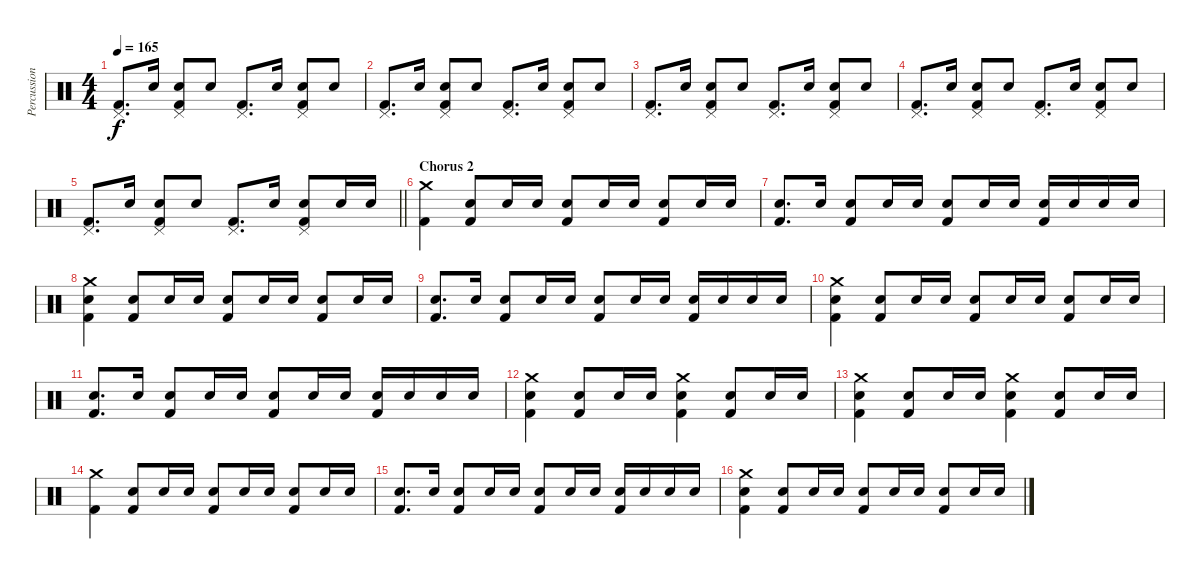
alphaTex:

\track ("Percussion" "Percussion") {instrument percussion}
\staff {score}
\articulation defaults
\ts (4 4)
\tempo 165
\clef neutral
\ks c
("Pedal Hi-Hat (hit)" "Kick (hit) 2").8{d dy f} "Electric Snare (hit)".16 ("Pedal Hi-Hat (hit)" "Electric Snare (hit)" "Kick (hit) 2").8 "Electric Snare (hit)".8 ("Pedal Hi-Hat (hit)" "Kick (hit) 2").8{d} "Electric Snare (hit)".16 ("Pedal Hi-Hat (hit)" "Electric Snare (hit)" "Kick (hit) 2").8 "Electric Snare (hit)".8 |
("Pedal Hi-Hat (hit)" "Kick (hit) 2").8{d} "Electric Snare (hit)".16 ("Pedal Hi-Hat (hit)" "Electric Snare (hit)" "Kick (hit) 2").8 "Electric Snare (hit)".8 ("Pedal Hi-Hat (hit)" "Kick (hit) 2").8{d} "Electric Snare (hit)".16 ("Pedal Hi-Hat (hit)" "Electric Snare (hit)" "Kick (hit) 2").8 "Electric Snare (hit)".8 |
("Pedal Hi-Hat (hit)" "Kick (hit) 2").8{d} "Electric Snare (hit)".16 ("Pedal Hi-Hat (hit)" "Electric Snare (hit)" "Kick (hit) 2").8 "Electric Snare (hit)".8 ("Pedal Hi-Hat (hit)" "Kick (hit) 2").8{d} "Electric Snare (hit)".16 ("Pedal Hi-Hat (hit)" "Electric Snare (hit)" "Kick (hit) 2").8 "Electric Snare (hit)".8 |
("Pedal Hi-Hat (hit)" "Kick (hit) 2").8{d} "Electric Snare (hit)".16 ("Pedal Hi-Hat (hit)" "Electric Snare (hit)" "Kick (hit) 2").8 "Electric Snare (hit)".8 ("Pedal Hi-Hat (hit)" "Kick (hit) 2").8{d} "Electric Snare (hit)".16 ("Pedal Hi-Hat (hit)" "Electric Snare (hit)" "Kick (hit) 2").8 "Electric Snare (hit)".8 |
\barLineRight lightlight
("Pedal Hi-Hat (hit)" "Kick (hit) 2").8{d} "Electric Snare (hit)".16 ("Pedal Hi-Hat (hit)" "Electric Snare (hit)" "Kick (hit) 2").8 "Electric Snare (hit)".8 ("Pedal Hi-Hat (hit)" "Kick (hit) 2").8{d} "Electric Snare (hit)".16 ("Pedal Hi-Hat (hit)" "Electric Snare (hit)" "Kick (hit) 2").8 "Electric Snare (hit)".16 "Electric Snare (hit)".16 |
\section ("" "Chorus 2")
("Crash medium (hit)" "Kick (hit) 2").4 ("Electric Snare (hit)" "Kick (hit) 2").8 "Electric Snare (hit)".16 "Electric Snare (hit)".16 ("Electric Snare (hit)" "Kick (hit) 2").8 "Electric Snare (hit)".16 "Electric Snare (hit)".16 ("Electric Snare (hit)" "Kick (hit) 2").8 "Electric Snare (hit)".16 "Electric Snare (hit)".16 |
("Electric Snare (hit)" "Kick (hit) 2").8{d} "Electric Snare (hit)".16 ("Electric Snare (hit)" "Kick (hit) 2").8 "Electric Snare (hit)".16 "Electric Snare (hit)".16 ("Electric Snare (hit)" "Kick (hit) 2").8 "Electric Snare (hit)".16 "Electric Snare (hit)".16 ("Electric Snare (hit)" "Kick (hit) 2").16 "Electric Snare (hit)".16 "Electric Snare (hit)".16 "Electric Snare (hit)".16 |
("Crash medium (hit)" "Electric Snare (hit)" "Kick (hit) 2").4 ("Electric Snare (hit)" "Kick (hit) 2").8 "Electric Snare (hit)".16 "Electric Snare (hit)".16 ("Electric Snare (hit)" "Kick (hit) 2").8 "Electric Snare (hit)".16 "Electric Snare (hit)".16 ("Electric Snare (hit)" "Kick (hit) 2").8 "Electric Snare (hit)".16 "Electric Snare (hit)".16 |
("Electric Snare (hit)" "Kick (hit) 2").8{d} "Electric Snare (hit)".16 ("Electric Snare (hit)" "Kick (hit) 2").8 "Electric Snare (hit)".16 "Electric Snare (hit)".16 ("Electric Snare (hit)" "Kick (hit) 2").8 "Electric Snare (hit)".16 "Electric Snare (hit)".16 ("Electric Snare (hit)" "Kick (hit) 2").16 "Electric Snare (hit)".16 "Electric Snare (hit)".16 "Electric Snare (hit)".16 |
("Crash medium (hit)" "Electric Snare (hit)" "Kick (hit) 2").4 ("Electric Snare (hit)" "Kick (hit) 2").8 "Electric Snare (hit)".16 "Electric Snare (hit)".16 ("Electric Snare (hit)" "Kick (hit) 2").8 "Electric Snare (hit)".16 "Electric Snare (hit)".16 ("Electric Snare (hit)" "Kick (hit) 2").8 "Electric Snare (hit)".16 "Electric Snare (hit)".16 |
("Electric Snare (hit)" "Kick (hit) 2").8{d} "Electric Snare (hit)".16 ("Electric Snare (hit)" "Kick (hit) 2").8 "Electric Snare (hit)".16 "Electric Snare (hit)".16 ("Electric Snare (hit)" "Kick (hit) 2").8 "Electric Snare (hit)".16 "Electric Snare (hit)".16 ("Electric Snare (hit)" "Kick (hit) 2").16 "Electric Snare (hit)".16 "Electric Snare (hit)".16 "Electric Snare (hit)".16 |
("Crash medium (hit)" "Electric Snare (hit)" "Kick (hit) 2").4 ("Electric Snare (hit)" "Kick (hit) 2").8 "Electric Snare (hit)".16 "Electric Snare (hit)".16 ("Crash medium (hit)" "Electric Snare (hit)" "Kick (hit) 2").4 ("Electric Snare (hit)" "Kick (hit) 2").8 "Electric Snare (hit)".16 "Electric Snare (hit)".16 |
("Crash medium (hit)" "Electric Snare (hit)" "Kick (hit) 2").4 ("Electric Snare (hit)" "Kick (hit) 2").8 "Electric Snare (hit)".16 "Electric Snare (hit)".16 ("Crash medium (hit)" "Electric Snare (hit)" "Kick (hit) 2").4 ("Electric Snare (hit)" "Kick (hit) 2").8 "Electric Snare (hit)".16 "Electric Snare (hit)".16 |
("Crash medium (hit)" "Kick (hit) 2").4 ("Electric Snare (hit)" "Kick (hit) 2").8 "Electric Snare (hit)".16 "Electric Snare (hit)".16 ("Electric Snare (hit)" "Kick (hit) 2").8 "Electric Snare (hit)".16 "Electric Snare (hit)".16 ("Electric Snare (hit)" "Kick (hit) 2").8 "Electric Snare (hit)".16 "Electric Snare (hit)".16 |
("Electric Snare (hit)" "Kick (hit) 2").8{d} "Electric Snare (hit)".16 ("Electric Snare (hit)" "Kick (hit) 2").8 "Electric Snare (hit)".16 "Electric Snare (hit)".16 ("Electric Snare (hit)" "Kick (hit) 2").8 "Electric Snare (hit)".16 "Electric Snare (hit)".16 ("Electric Snare (hit)" "Kick (hit) 2").16 "Electric Snare (hit)".16 "Electric Snare (hit)".16 "Electric Snare (hit)".16 |
("Crash medium (hit)" "Electric Snare (hit)" "Kick (hit) 2").4 ("Electric Snare (hit)" "Kick (hit) 2").8 "Electric Snare (hit)".16 "Electric Snare (hit)".16 ("Electric Snare (hit)" "Kick (hit) 2").8 "Electric Snare (hit)".16 "Electric Snare (hit)".16 ("Electric Snare (hit)" "Kick (hit) 2").8 "Electric Snare (hit)".16 "Electric Snare (hit)".16
